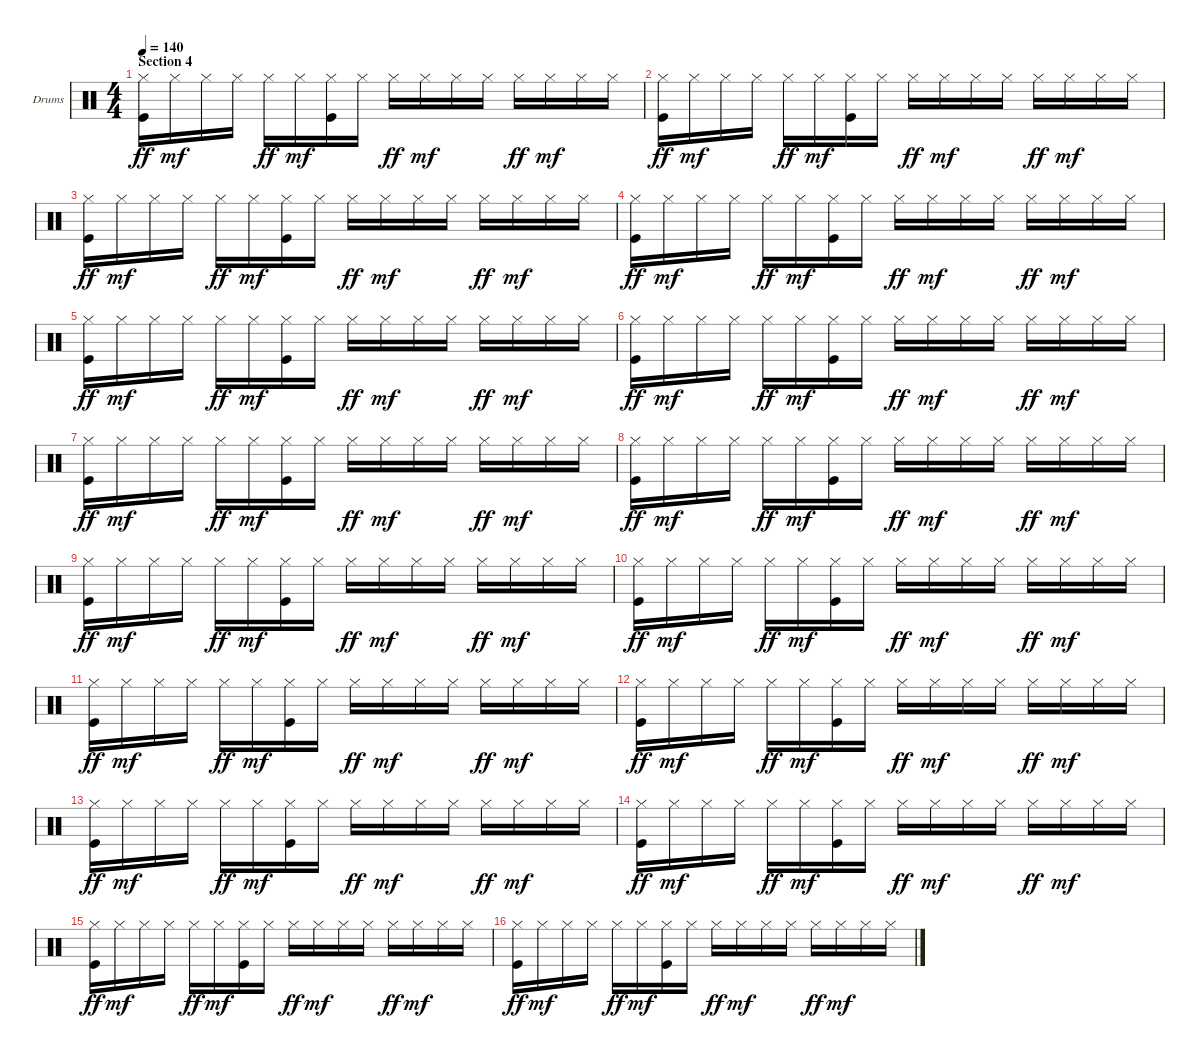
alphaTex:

\bracketExtendMode groupsimilarinstruments
\firstSystemTrackNameOrientation horizontal
\otherSystemsTrackNameOrientation horizontal
\track ("Drumkit" "Drums") {instrument percussion}
\staff {score}
\articulation defaults
\ts (4 4)
\section ("" "Section 4")
\tempo 140
\clef neutral
\ks c
("Hi-Hat (closed)" "Kick (hit)").16{dy ff} "Hi-Hat (closed)".16{dy mf} "Hi-Hat (closed)".16 "Hi-Hat (closed)".16 "Hi-Hat (closed)".16{dy ff} "Hi-Hat (closed)".16{dy mf} ("Hi-Hat (closed)" "Kick (hit)").16 "Hi-Hat (closed)".16 "Hi-Hat (closed)".16{dy ff} "Hi-Hat (closed)".16{dy mf} "Hi-Hat (closed)".16 "Hi-Hat (closed)".16 "Hi-Hat (closed)".16{dy ff} "Hi-Hat (closed)".16{dy mf} "Hi-Hat (closed)".16 "Hi-Hat (closed)".16 |
("Hi-Hat (closed)" "Kick (hit)").16{dy ff} "Hi-Hat (closed)".16{dy mf} "Hi-Hat (closed)".16 "Hi-Hat (closed)".16 "Hi-Hat (closed)".16{dy ff} "Hi-Hat (closed)".16{dy mf} ("Hi-Hat (closed)" "Kick (hit)").16 "Hi-Hat (closed)".16 "Hi-Hat (closed)".16{dy ff} "Hi-Hat (closed)".16{dy mf} "Hi-Hat (closed)".16 "Hi-Hat (closed)".16 "Hi-Hat (closed)".16{dy ff} "Hi-Hat (closed)".16{dy mf} "Hi-Hat (closed)".16 "Hi-Hat (closed)".16 |
("Hi-Hat (closed)" "Kick (hit)").16{dy ff} "Hi-Hat (closed)".16{dy mf} "Hi-Hat (closed)".16 "Hi-Hat (closed)".16 "Hi-Hat (closed)".16{dy ff} "Hi-Hat (closed)".16{dy mf} ("Hi-Hat (closed)" "Kick (hit)").16 "Hi-Hat (closed)".16 "Hi-Hat (closed)".16{dy ff} "Hi-Hat (closed)".16{dy mf} "Hi-Hat (closed)".16 "Hi-Hat (closed)".16 "Hi-Hat (closed)".16{dy ff} "Hi-Hat (closed)".16{dy mf} "Hi-Hat (closed)".16 "Hi-Hat (closed)".16 |
("Hi-Hat (closed)" "Kick (hit)").16{dy ff} "Hi-Hat (closed)".16{dy mf} "Hi-Hat (closed)".16 "Hi-Hat (closed)".16 "Hi-Hat (closed)".16{dy ff} "Hi-Hat (closed)".16{dy mf} ("Hi-Hat (closed)" "Kick (hit)").16 "Hi-Hat (closed)".16 "Hi-Hat (closed)".16{dy ff} "Hi-Hat (closed)".16{dy mf} "Hi-Hat (closed)".16 "Hi-Hat (closed)".16 "Hi-Hat (closed)".16{dy ff} "Hi-Hat (closed)".16{dy mf} "Hi-Hat (closed)".16 "Hi-Hat (closed)".16 |
("Hi-Hat (closed)" "Kick (hit)").16{dy ff} "Hi-Hat (closed)".16{dy mf} "Hi-Hat (closed)".16 "Hi-Hat (closed)".16 "Hi-Hat (closed)".16{dy ff} "Hi-Hat (closed)".16{dy mf} ("Hi-Hat (closed)" "Kick (hit)").16 "Hi-Hat (closed)".16 "Hi-Hat (closed)".16{dy ff} "Hi-Hat (closed)".16{dy mf} "Hi-Hat (closed)".16 "Hi-Hat (closed)".16 "Hi-Hat (closed)".16{dy ff} "Hi-Hat (closed)".16{dy mf} "Hi-Hat (closed)".16 "Hi-Hat (closed)".16 |
("Hi-Hat (closed)" "Kick (hit)").16{dy ff} "Hi-Hat (closed)".16{dy mf} "Hi-Hat (closed)".16 "Hi-Hat (closed)".16 "Hi-Hat (closed)".16{dy ff} "Hi-Hat (closed)".16{dy mf} ("Hi-Hat (closed)" "Kick (hit)").16 "Hi-Hat (closed)".16 "Hi-Hat (closed)".16{dy ff} "Hi-Hat (closed)".16{dy mf} "Hi-Hat (closed)".16 "Hi-Hat (closed)".16 "Hi-Hat (closed)".16{dy ff} "Hi-Hat (closed)".16{dy mf} "Hi-Hat (closed)".16 "Hi-Hat (closed)".16 |
("Hi-Hat (closed)" "Kick (hit)").16{dy ff} "Hi-Hat (closed)".16{dy mf} "Hi-Hat (closed)".16 "Hi-Hat (closed)".16 "Hi-Hat (closed)".16{dy ff} "Hi-Hat (closed)".16{dy mf} ("Hi-Hat (closed)" "Kick (hit)").16 "Hi-Hat (closed)".16 "Hi-Hat (closed)".16{dy ff} "Hi-Hat (closed)".16{dy mf} "Hi-Hat (closed)".16 "Hi-Hat (closed)".16 "Hi-Hat (closed)".16{dy ff} "Hi-Hat (closed)".16{dy mf} "Hi-Hat (closed)".16 "Hi-Hat (closed)".16 |
("Hi-Hat (closed)" "Kick (hit)").16{dy ff} "Hi-Hat (closed)".16{dy mf} "Hi-Hat (closed)".16 "Hi-Hat (closed)".16 "Hi-Hat (closed)".16{dy ff} "Hi-Hat (closed)".16{dy mf} ("Hi-Hat (closed)" "Kick (hit)").16 "Hi-Hat (closed)".16 "Hi-Hat (closed)".16{dy ff} "Hi-Hat (closed)".16{dy mf} "Hi-Hat (closed)".16 "Hi-Hat (closed)".16 "Hi-Hat (closed)".16{dy ff} "Hi-Hat (closed)".16{dy mf} "Hi-Hat (closed)".16 "Hi-Hat (closed)".16 |
("Hi-Hat (closed)" "Kick (hit)").16{dy ff} "Hi-Hat (closed)".16{dy mf} "Hi-Hat (closed)".16 "Hi-Hat (closed)".16 "Hi-Hat (closed)".16{dy ff} "Hi-Hat (closed)".16{dy mf} ("Hi-Hat (closed)" "Kick (hit)").16 "Hi-Hat (closed)".16 "Hi-Hat (closed)".16{dy ff} "Hi-Hat (closed)".16{dy mf} "Hi-Hat (closed)".16 "Hi-Hat (closed)".16 "Hi-Hat (closed)".16{dy ff} "Hi-Hat (closed)".16{dy mf} "Hi-Hat (closed)".16 "Hi-Hat (closed)".16 |
("Hi-Hat (closed)" "Kick (hit)").16{dy ff} "Hi-Hat (closed)".16{dy mf} "Hi-Hat (closed)".16 "Hi-Hat (closed)".16 "Hi-Hat (closed)".16{dy ff} "Hi-Hat (closed)".16{dy mf} ("Hi-Hat (closed)" "Kick (hit)").16 "Hi-Hat (closed)".16 "Hi-Hat (closed)".16{dy ff} "Hi-Hat (closed)".16{dy mf} "Hi-Hat (closed)".16 "Hi-Hat (closed)".16 "Hi-Hat (closed)".16{dy ff} "Hi-Hat (closed)".16{dy mf} "Hi-Hat (closed)".16 "Hi-Hat (closed)".16 |
("Hi-Hat (closed)" "Kick (hit)").16{dy ff} "Hi-Hat (closed)".16{dy mf} "Hi-Hat (closed)".16 "Hi-Hat (closed)".16 "Hi-Hat (closed)".16{dy ff} "Hi-Hat (closed)".16{dy mf} ("Hi-Hat (closed)" "Kick (hit)").16 "Hi-Hat (closed)".16 "Hi-Hat (closed)".16{dy ff} "Hi-Hat (closed)".16{dy mf} "Hi-Hat (closed)".16 "Hi-Hat (closed)".16 "Hi-Hat (closed)".16{dy ff} "Hi-Hat (closed)".16{dy mf} "Hi-Hat (closed)".16 "Hi-Hat (closed)".16 |
("Hi-Hat (closed)" "Kick (hit)").16{dy ff} "Hi-Hat (closed)".16{dy mf} "Hi-Hat (closed)".16 "Hi-Hat (closed)".16 "Hi-Hat (closed)".16{dy ff} "Hi-Hat (closed)".16{dy mf} ("Hi-Hat (closed)" "Kick (hit)").16 "Hi-Hat (closed)".16 "Hi-Hat (closed)".16{dy ff} "Hi-Hat (closed)".16{dy mf} "Hi-Hat (closed)".16 "Hi-Hat (closed)".16 "Hi-Hat (closed)".16{dy ff} "Hi-Hat (closed)".16{dy mf} "Hi-Hat (closed)".16 "Hi-Hat (closed)".16 |
("Hi-Hat (closed)" "Kick (hit)").16{dy ff} "Hi-Hat (closed)".16{dy mf} "Hi-Hat (closed)".16 "Hi-Hat (closed)".16 "Hi-Hat (closed)".16{dy ff} "Hi-Hat (closed)".16{dy mf} ("Hi-Hat (closed)" "Kick (hit)").16 "Hi-Hat (closed)".16 "Hi-Hat (closed)".16{dy ff} "Hi-Hat (closed)".16{dy mf} "Hi-Hat (closed)".16 "Hi-Hat (closed)".16 "Hi-Hat (closed)".16{dy ff} "Hi-Hat (closed)".16{dy mf} "Hi-Hat (closed)".16 "Hi-Hat (closed)".16 |
("Hi-Hat (closed)" "Kick (hit)").16{dy ff} "Hi-Hat (closed)".16{dy mf} "Hi-Hat (closed)".16 "Hi-Hat (closed)".16 "Hi-Hat (closed)".16{dy ff} "Hi-Hat (closed)".16{dy mf} ("Hi-Hat (closed)" "Kick (hit)").16 "Hi-Hat (closed)".16 "Hi-Hat (closed)".16{dy ff} "Hi-Hat (closed)".16{dy mf} "Hi-Hat (closed)".16 "Hi-Hat (closed)".16 "Hi-Hat (closed)".16{dy ff} "Hi-Hat (closed)".16{dy mf} "Hi-Hat (closed)".16 "Hi-Hat (closed)".16 |
("Hi-Hat (closed)" "Kick (hit)").16{dy ff} "Hi-Hat (closed)".16{dy mf} "Hi-Hat (closed)".16 "Hi-Hat (closed)".16 "Hi-Hat (closed)".16{dy ff} "Hi-Hat (closed)".16{dy mf} ("Hi-Hat (closed)" "Kick (hit)").16 "Hi-Hat (closed)".16 "Hi-Hat (closed)".16{dy ff} "Hi-Hat (closed)".16{dy mf} "Hi-Hat (closed)".16 "Hi-Hat (closed)".16 "Hi-Hat (closed)".16{dy ff} "Hi-Hat (closed)".16{dy mf} "Hi-Hat (closed)".16 "Hi-Hat (closed)".16 |
("Hi-Hat (closed)" "Kick (hit)").16{dy ff} "Hi-Hat (closed)".16{dy mf} "Hi-Hat (closed)".16 "Hi-Hat (closed)".16 "Hi-Hat (closed)".16{dy ff} "Hi-Hat (closed)".16{dy mf} ("Hi-Hat (closed)" "Kick (hit)").16 "Hi-Hat (closed)".16 "Hi-Hat (closed)".16{dy ff} "Hi-Hat (closed)".16{dy mf} "Hi-Hat (closed)".16 "Hi-Hat (closed)".16 "Hi-Hat (closed)".16{dy ff} "Hi-Hat (closed)".16{dy mf} "Hi-Hat (closed)".16 "Hi-Hat (closed)".16
